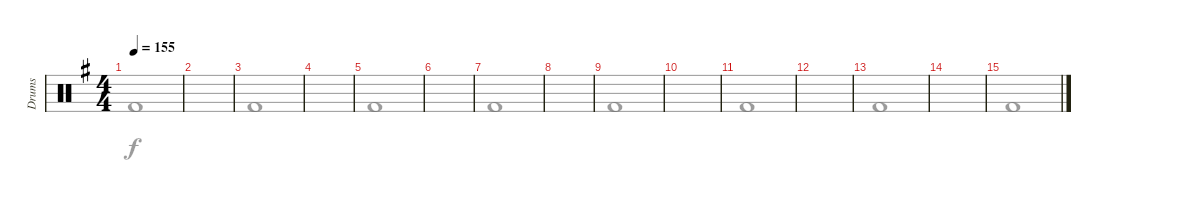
\track ("Drums" "Drums") {instrument percussion}
\staff {score}
\articulation defaults
\voice
\ts (4 4)
\tempo 155
\clef neutral
\ks g
|
|
|
|
|
|
|
|
|
|
|
|
|
|
|
\voice
\clef neutral
\ks g "Kick (hit) 2".1{dy f}
|
|
"Kick (hit) 2".1 |
|
"Kick (hit) 2".1 |
|
"Kick (hit) 2".1 |
|
"Kick (hit) 2".1 |
|
"Kick (hit) 2".1 |
|
"Kick (hit) 2".1 |
|
"Kick (hit) 2".1 |
